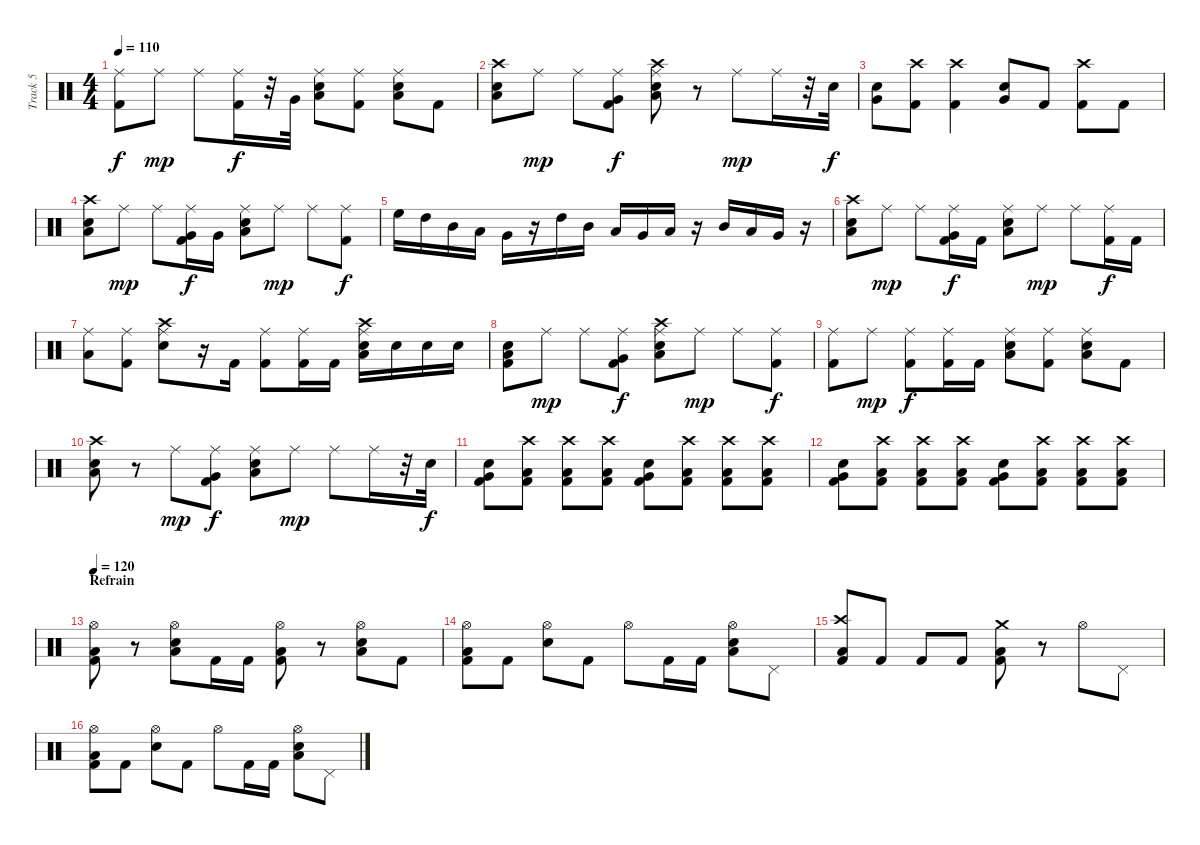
\track ("Track 5" "Track 5") {instrument percussion}
\staff {score}
\articulation defaults
\ts (4 4)
\tempo 110
\clef neutral
\ks c
("Ride (middle)" "Kick (hit) 2").8{dy f} "Ride (middle)".8{dy mp} "Ride (middle)".8 ("Ride (middle)" "Kick (hit) 2").16{dy f} r.32 "Very Low Tom (hit)".32 ("Ride (middle)" "Low Tom (hit)" "Snare (hit) 2").8 ("Ride (middle)" "Kick (hit) 2").8 ("Ride (middle)" "Low Tom (hit)" "Snare (hit) 2").8 "Kick (hit) 2".8 |
("Snare (hit) 2" "Crash high (hit)" "Low Tom (hit)").8 "Ride (middle)".8{dy mp} "Ride (middle)".8 ("Ride (middle)" "Kick (hit) 2" "Very Low Tom (hit)").8{dy f} ("Ride (middle)" "Electric Snare (hit)" "Low Tom (hit)" "Crash high (hit)").8 r.8 "Ride (middle)".8{dy mp} "Ride (middle)".16 r.32 "Snare (hit) 2".32{dy f} |
("Snare (hit) 2" "Very Low Tom (hit)").8 ("Kick (hit) 2" "Crash high (hit)").8 ("Kick (hit) 2" "Crash high (hit)").4 ("Snare (hit) 2" "Very Low Tom (hit)").8 "Kick (hit) 2".8 ("Kick (hit) 2" "Crash high (hit)").8 "Kick (hit) 2".8 |
("Snare (hit) 2" "Crash high (hit)" "Low Tom (hit)").8 "Ride (middle)".8{dy mp} "Ride (middle)".8 ("Ride (middle)" "Kick (hit) 2" "Very Low Tom (hit)").16{dy f} "Very Low Tom (hit)".16 ("Ride (middle)" "Electric Snare (hit)" "Low Tom (hit)").8 "Ride (middle)".8{dy mp} "Ride (middle)".8 ("Ride (middle)" "Kick (hit) 2").8{dy f} |
"High Floor Tom (hit)".16 "High Tom (hit)".16 "Mid Tom (hit)".16 "Low Tom (hit)".16 "Very Low Tom (hit)".16 r.16 "High Tom (hit)".16 "Mid Tom (hit)".16 "Low Tom (hit)".16 "Very Low Tom (hit)".16 "Low Floor Tom (hit)".16 r.16 "Mid Tom (hit)".16 "Low Tom (hit)".16 "Very Low Tom (hit)".16 r.16 |
("Snare (hit) 2" "Crash high (hit)" "Low Tom (hit)").8 "Ride (middle)".8{dy mp} "Ride (middle)".8 ("Ride (middle)" "Kick (hit) 2" "Very Low Tom (hit)").16{dy f} "Kick (hit) 2".16 ("Ride (middle)" "Electric Snare (hit)" "Low Tom (hit)").8 "Ride (middle)".8{dy mp} "Ride (middle)".8 ("Ride (middle)" "Kick (hit) 2").16{dy f} "Kick (hit) 2".16 |
("Ride (middle)" "Low Tom (hit)").8 ("Ride (middle)" "Kick (hit) 2").8 ("Ride (middle)" "Snare (hit) 2" "Crash high (hit)").8 r.16 "Kick (hit) 2".16 ("Ride (middle)" "Kick (hit) 2").8 ("Ride (middle)" "Kick (hit) 2").16 "Kick (hit) 2".16 ("Ride (middle)" "Low Tom (hit)" "Snare (hit) 2" "Crash high (hit)").16 "Snare (hit) 2".16 "Snare (hit) 2".16 "Snare (hit) 2".16 |
("Snare (hit) 2" "Kick (hit) 2" "Low Tom (hit)").8 "Ride (middle)".8{dy mp} "Ride (middle)".8 ("Ride (middle)" "Kick (hit) 2" "Very Low Tom (hit)").8{dy f} ("Ride (middle)" "Electric Snare (hit)" "Low Tom (hit)" "Crash high (hit)").8 "Ride (middle)".8{dy mp} "Ride (middle)".8 ("Ride (middle)" "Kick (hit) 2").8{dy f} |
("Ride (middle)" "Kick (hit) 2").8 "Ride (middle)".8{dy mp} ("Ride (middle)" "Kick (hit) 2").8{dy f} ("Ride (middle)" "Kick (hit) 2").16 "Kick (hit) 2".16 ("Ride (middle)" "Low Tom (hit)" "Snare (hit) 2").8 ("Ride (middle)" "Kick (hit) 2").8 ("Ride (middle)" "Low Tom (hit)" "Snare (hit) 2").8 "Kick (hit) 2".8 |
("Snare (hit) 2" "Crash high (hit)" "Low Tom (hit)").8 r.8 "Ride (middle)".8{dy mp} ("Ride (middle)" "Kick (hit) 2" "Very Low Tom (hit)").8{dy f} ("Ride (middle)" "Electric Snare (hit)" "Low Tom (hit)").8 "Ride (middle)".8{dy mp} "Ride (middle)".8 "Ride (middle)".16 r.32 "Snare (hit) 2".32{dy f} |
("Kick (hit) 2" "Very Low Tom (hit)" "Snare (hit) 2").8 ("Kick (hit) 2" "Low Tom (hit)" "Crash high (hit)").8 ("Kick (hit) 2" "Low Tom (hit)" "Crash high (hit)").8 ("Kick (hit) 2" "Low Tom (hit)" "Crash high (hit)").8 ("Kick (hit) 2" "Very Low Tom (hit)" "Snare (hit) 2").8 ("Kick (hit) 2" "Low Tom (hit)" "Crash high (hit)").8 ("Kick (hit) 2" "Low Tom (hit)" "Crash high (hit)").8 ("Kick (hit) 2" "Low Tom (hit)" "Crash high (hit)").8 |
("Kick (hit) 2" "Very Low Tom (hit)" "Snare (hit) 2").8 ("Kick (hit) 2" "Low Tom (hit)" "Crash high (hit)").8 ("Kick (hit) 2" "Low Tom (hit)" "Crash high (hit)").8 ("Kick (hit) 2" "Low Tom (hit)" "Crash high (hit)").8 ("Kick (hit) 2" "Very Low Tom (hit)" "Snare (hit) 2").8 ("Kick (hit) 2" "Low Tom (hit)" "Crash high (hit)").8 ("Kick (hit) 2" "Low Tom (hit)" "Crash high (hit)").8 ("Kick (hit) 2" "Low Tom (hit)" "Crash high (hit)").8 |
\section ("" "Refrain")
\tempo 120
("Kick (hit) 2" "Hi-Hat (open)" "Low Floor Tom (hit)").8 r.8 ("Snare (hit) 2" "Hi-Hat (open)" "Low Tom (hit)").8 "Kick (hit) 2".16 "Kick (hit) 2".16 ("Kick (hit) 2" "Hi-Hat (open)" "Low Floor Tom (hit)").8 r.8 ("Snare (hit) 2" "Hi-Hat (open)" "Low Tom (hit)").8 "Kick (hit) 2".8 |
("Kick (hit) 2" "Hi-Hat (open)" "Low Floor Tom (hit)").8 "Kick (hit) 2".8 ("Snare (hit) 2" "Hi-Hat (open)").8 "Kick (hit) 2".8 "Hi-Hat (open)".8 "Kick (hit) 2".16 "Kick (hit) 2".16 ("Snare (hit) 2" "Hi-Hat (open)" "Low Tom (hit)").8 "Pedal Hi-Hat (hit)".8 |
("Kick (hit) 2" "Crash high (hit)" "Low Floor Tom (hit)").8 "Kick (hit) 2".8 "Kick (hit) 2".8 "Kick (hit) 2".8 ("Kick (hit) 2" "Crash medium (hit)" "Low Floor Tom (hit)").8 r.8 "Hi-Hat (open)".8 "Pedal Hi-Hat (hit)".8 |
("Kick (hit) 2" "Hi-Hat (open)" "Low Floor Tom (hit)").8 "Kick (hit) 2".8 ("Snare (hit) 2" "Hi-Hat (open)").8 "Kick (hit) 2".8 "Hi-Hat (open)".8 "Kick (hit) 2".16 "Kick (hit) 2".16 ("Snare (hit) 2" "Hi-Hat (open)" "Low Tom (hit)").8 "Pedal Hi-Hat (hit)".8
